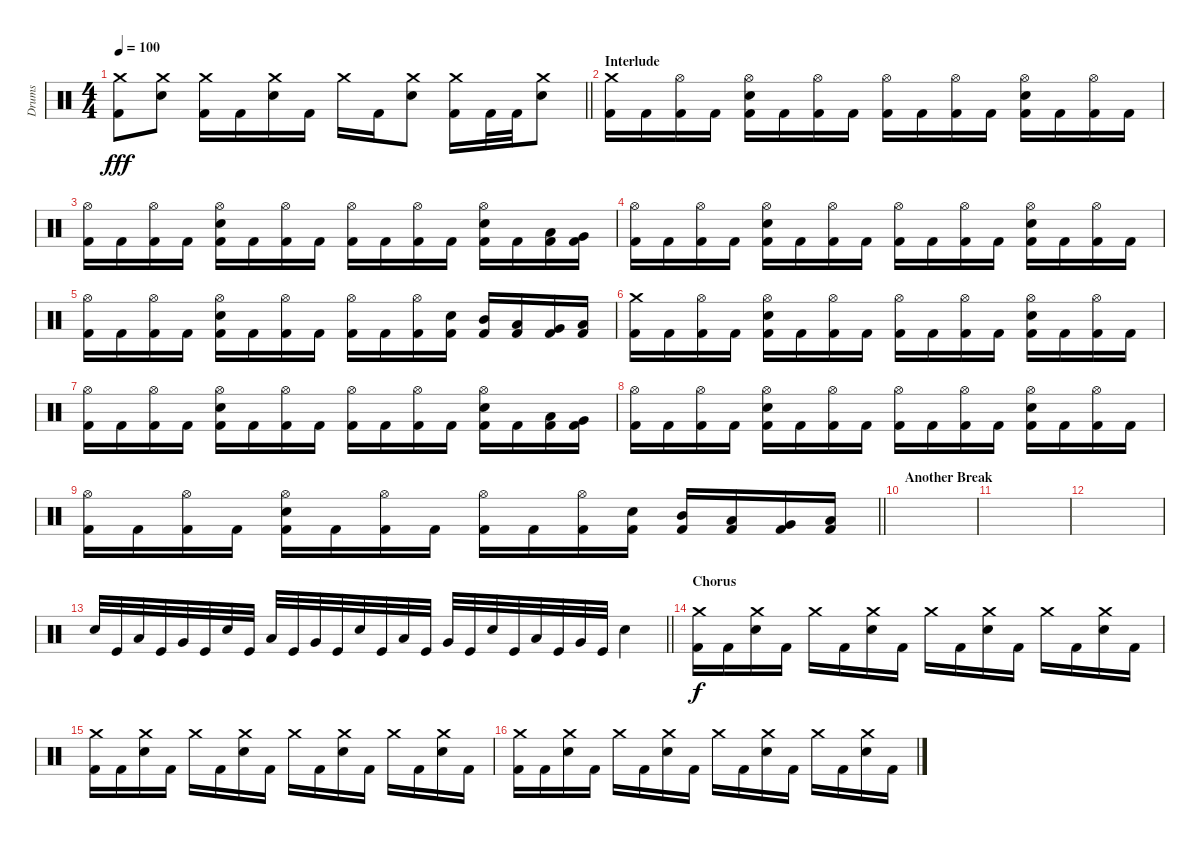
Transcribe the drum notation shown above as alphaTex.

\track ("Drums" "Drums") {instrument percussion}
\staff {score}
\articulation defaults
\ts (4 4)
\tempo 100
\clef neutral
\barLineRight lightlight
\ks c
("Crash medium (hit)" "Kick (hit) 2").8{dy fff} ("Crash medium (hit)" "Electric Snare (hit)").8 ("Crash medium (hit)" "Kick (hit) 2").16 "Kick (hit) 2".16 ("Crash medium (hit)" "Electric Snare (hit)").16 "Kick (hit) 2".16 "Crash medium (hit)".16 "Kick (hit) 2".16 ("Crash medium (hit)" "Electric Snare (hit)").8 ("Crash medium (hit)" "Kick (hit) 2").16 "Kick (hit) 2".32 "Kick (hit) 2".32 ("Crash medium (hit)" "Electric Snare (hit)").8 |
\section ("" "Interlude")
("Crash medium (hit)" "Kick (hit) 2").16 "Kick (hit) 2".16 ("Hi-Hat (open)" "Kick (hit) 2").16 "Kick (hit) 2".16 ("Hi-Hat (open)" "Electric Snare (hit)" "Kick (hit) 2").16 "Kick (hit) 2".16 ("Hi-Hat (open)" "Kick (hit) 2").16 "Kick (hit) 2".16 ("Hi-Hat (open)" "Kick (hit) 2").16 "Kick (hit) 2".16 ("Hi-Hat (open)" "Kick (hit) 2").16 "Kick (hit) 2".16 ("Hi-Hat (open)" "Electric Snare (hit)" "Kick (hit) 2").16 "Kick (hit) 2".16 ("Hi-Hat (open)" "Kick (hit) 2").16 "Kick (hit) 2".16 |
("Hi-Hat (open)" "Kick (hit) 2").16 "Kick (hit) 2".16 ("Hi-Hat (open)" "Kick (hit) 2").16 "Kick (hit) 2".16 ("Hi-Hat (open)" "Electric Snare (hit)" "Kick (hit) 2").16 "Kick (hit) 2".16 ("Hi-Hat (open)" "Kick (hit) 2").16 "Kick (hit) 2".16 ("Hi-Hat (open)" "Kick (hit) 2").16 "Kick (hit) 2".16 ("Hi-Hat (open)" "Kick (hit) 2").16 "Kick (hit) 2".16 ("Hi-Hat (open)" "Electric Snare (hit)" "Kick (hit) 2").16 "Kick (hit) 2".16 ("Low Tom (hit)" "Kick (hit) 2").16 ("Very Low Tom (hit)" "Kick (hit) 2").16 |
("Hi-Hat (open)" "Kick (hit) 2").16 "Kick (hit) 2".16 ("Hi-Hat (open)" "Kick (hit) 2").16 "Kick (hit) 2".16 ("Hi-Hat (open)" "Electric Snare (hit)" "Kick (hit) 2").16 "Kick (hit) 2".16 ("Hi-Hat (open)" "Kick (hit) 2").16 "Kick (hit) 2".16 ("Hi-Hat (open)" "Kick (hit) 2").16 "Kick (hit) 2".16 ("Hi-Hat (open)" "Kick (hit) 2").16 "Kick (hit) 2".16 ("Hi-Hat (open)" "Electric Snare (hit)" "Kick (hit) 2").16 "Kick (hit) 2".16 ("Hi-Hat (open)" "Kick (hit) 2").16 "Kick (hit) 2".16 |
("Hi-Hat (open)" "Kick (hit) 2").16 "Kick (hit) 2".16 ("Hi-Hat (open)" "Kick (hit) 2").16 "Kick (hit) 2".16 ("Hi-Hat (open)" "Electric Snare (hit)" "Kick (hit) 2").16 "Kick (hit) 2".16 ("Hi-Hat (open)" "Kick (hit) 2").16 "Kick (hit) 2".16 ("Hi-Hat (open)" "Kick (hit) 2").16 "Kick (hit) 2".16 ("Hi-Hat (open)" "Kick (hit) 2").16 ("Electric Snare (hit)" "Kick (hit) 2").16 ("Mid Tom (hit)" "Kick (hit) 2").16 ("Low Tom (hit)" "Kick (hit) 2").16 ("Very Low Tom (hit)" "Kick (hit) 2").16 ("Low Floor Tom (hit)" "Kick (hit) 2").16 |
("Crash medium (hit)" "Kick (hit) 2").16 "Kick (hit) 2".16 ("Hi-Hat (open)" "Kick (hit) 2").16 "Kick (hit) 2".16 ("Hi-Hat (open)" "Electric Snare (hit)" "Kick (hit) 2").16 "Kick (hit) 2".16 ("Hi-Hat (open)" "Kick (hit) 2").16 "Kick (hit) 2".16 ("Hi-Hat (open)" "Kick (hit) 2").16 "Kick (hit) 2".16 ("Hi-Hat (open)" "Kick (hit) 2").16 "Kick (hit) 2".16 ("Hi-Hat (open)" "Electric Snare (hit)" "Kick (hit) 2").16 "Kick (hit) 2".16 ("Hi-Hat (open)" "Kick (hit) 2").16 "Kick (hit) 2".16 |
("Hi-Hat (open)" "Kick (hit) 2").16 "Kick (hit) 2".16 ("Hi-Hat (open)" "Kick (hit) 2").16 "Kick (hit) 2".16 ("Hi-Hat (open)" "Electric Snare (hit)" "Kick (hit) 2").16 "Kick (hit) 2".16 ("Hi-Hat (open)" "Kick (hit) 2").16 "Kick (hit) 2".16 ("Hi-Hat (open)" "Kick (hit) 2").16 "Kick (hit) 2".16 ("Hi-Hat (open)" "Kick (hit) 2").16 "Kick (hit) 2".16 ("Hi-Hat (open)" "Electric Snare (hit)" "Kick (hit) 2").16 "Kick (hit) 2".16 ("Low Tom (hit)" "Kick (hit) 2").16 ("Very Low Tom (hit)" "Kick (hit) 2").16 |
("Hi-Hat (open)" "Kick (hit) 2").16 "Kick (hit) 2".16 ("Hi-Hat (open)" "Kick (hit) 2").16 "Kick (hit) 2".16 ("Hi-Hat (open)" "Electric Snare (hit)" "Kick (hit) 2").16 "Kick (hit) 2".16 ("Hi-Hat (open)" "Kick (hit) 2").16 "Kick (hit) 2".16 ("Hi-Hat (open)" "Kick (hit) 2").16 "Kick (hit) 2".16 ("Hi-Hat (open)" "Kick (hit) 2").16 "Kick (hit) 2".16 ("Hi-Hat (open)" "Electric Snare (hit)" "Kick (hit) 2").16 "Kick (hit) 2".16 ("Hi-Hat (open)" "Kick (hit) 2").16 "Kick (hit) 2".16 |
\barLineRight lightlight
("Hi-Hat (open)" "Kick (hit) 2").16 "Kick (hit) 2".16 ("Hi-Hat (open)" "Kick (hit) 2").16 "Kick (hit) 2".16 ("Hi-Hat (open)" "Electric Snare (hit)" "Kick (hit) 2").16 "Kick (hit) 2".16 ("Hi-Hat (open)" "Kick (hit) 2").16 "Kick (hit) 2".16 ("Hi-Hat (open)" "Kick (hit) 2").16 "Kick (hit) 2".16 ("Hi-Hat (open)" "Kick (hit) 2").16 ("Electric Snare (hit)" "Kick (hit) 2").16 ("Mid Tom (hit)" "Kick (hit) 2").16 ("Low Tom (hit)" "Kick (hit) 2").16 ("Very Low Tom (hit)" "Kick (hit) 2").16 ("Low Floor Tom (hit)" "Kick (hit) 2").16 |
\section ("" "Another Break")
|
|
|
\barLineRight lightlight "Electric Snare (hit)".32 "Kick (hit)".32 "Low Tom (hit)".32 "Kick (hit)".32 "Very Low Tom (hit)".32 "Kick (hit)".32 "Electric Snare (hit)".32 "Kick (hit)".32 "Low Tom (hit)".32 "Kick (hit)".32 "Very Low Tom (hit)".32 "Kick (hit)".32 "Electric Snare (hit)".32 "Kick (hit)".32 "Low Tom (hit)".32 "Kick (hit)".32 "Very Low Tom (hit)".32 "Kick (hit)".32 "Electric Snare (hit)".32 "Kick (hit)".32 "Low Tom (hit)".32 "Kick (hit)".32 "Very Low Tom (hit)".32 "Kick (hit)".32 "Electric Snare (hit)".4
|
\section ("" "Chorus")
("Crash medium (hit)" "Kick (hit) 2").16{dy f} "Kick (hit) 2".16 ("Crash medium (hit)" "Electric Snare (hit)").16 "Kick (hit) 2".16 "Crash medium (hit)".16 "Kick (hit) 2".16 ("Crash medium (hit)" "Electric Snare (hit)").16 "Kick (hit) 2".16 "Crash medium (hit)".16 "Kick (hit) 2".16 ("Crash medium (hit)" "Electric Snare (hit)").16 "Kick (hit) 2".16 "Crash medium (hit)".16 "Kick (hit) 2".16 ("Crash medium (hit)" "Electric Snare (hit)").16 "Kick (hit) 2".16 |
("Crash medium (hit)" "Kick (hit) 2").16 "Kick (hit) 2".16 ("Crash medium (hit)" "Electric Snare (hit)").16 "Kick (hit) 2".16 "Crash medium (hit)".16 "Kick (hit) 2".16 ("Crash medium (hit)" "Electric Snare (hit)").16 "Kick (hit) 2".16 "Crash medium (hit)".16 "Kick (hit) 2".16 ("Crash medium (hit)" "Electric Snare (hit)").16 "Kick (hit) 2".16 "Crash medium (hit)".16 "Kick (hit) 2".16 ("Crash medium (hit)" "Electric Snare (hit)").16 "Kick (hit) 2".16 |
("Crash medium (hit)" "Kick (hit) 2").16 "Kick (hit) 2".16 ("Crash medium (hit)" "Electric Snare (hit)").16 "Kick (hit) 2".16 "Crash medium (hit)".16 "Kick (hit) 2".16 ("Crash medium (hit)" "Electric Snare (hit)").16 "Kick (hit) 2".16 "Crash medium (hit)".16 "Kick (hit) 2".16 ("Crash medium (hit)" "Electric Snare (hit)").16 "Kick (hit) 2".16 "Crash medium (hit)".16 "Kick (hit) 2".16 ("Crash medium (hit)" "Electric Snare (hit)").16 "Kick (hit) 2".16
